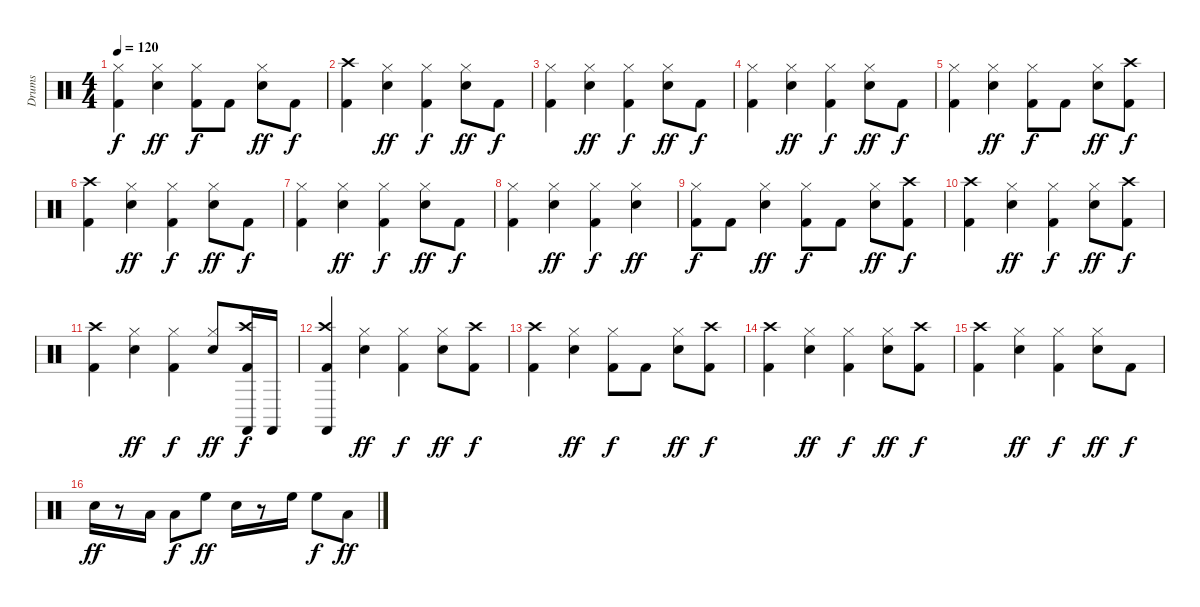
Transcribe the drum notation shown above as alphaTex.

\track ("Drums" "Drums") {instrument percussion}
\staff {score}
\articulation defaults
\ts (4 4)
\tempo 120
\clef neutral
\ks c
("Hi-Hat (closed)" "Kick (hit) 2").4{dy f} ("Snare (hit) 2" "Hi-Hat (closed)").4{dy ff} ("Hi-Hat (closed)" "Kick (hit) 2").8{dy f} "Kick (hit) 2".8 ("Snare (hit) 2" "Hi-Hat (closed)").8{dy ff} "Kick (hit) 2".8{dy f} |
("Crash high (hit)" "Kick (hit) 2").4 ("Snare (hit) 2" "Hi-Hat (closed)").4{dy ff} ("Hi-Hat (closed)" "Kick (hit) 2").4{dy f} ("Snare (hit) 2" "Hi-Hat (closed)").8{dy ff} "Kick (hit) 2".8{dy f} |
("Hi-Hat (closed)" "Kick (hit) 2").4 ("Snare (hit) 2" "Hi-Hat (closed)").4{dy ff} ("Hi-Hat (closed)" "Kick (hit) 2").4{dy f} ("Snare (hit) 2" "Hi-Hat (closed)").8{dy ff} "Kick (hit) 2".8{dy f} |
("Hi-Hat (closed)" "Kick (hit) 2").4 ("Snare (hit) 2" "Hi-Hat (closed)").4{dy ff} ("Hi-Hat (closed)" "Kick (hit) 2").4{dy f} ("Snare (hit) 2" "Hi-Hat (closed)").8{dy ff} "Kick (hit) 2".8{dy f} |
("Hi-Hat (closed)" "Kick (hit) 2").4 ("Snare (hit) 2" "Hi-Hat (closed)").4{dy ff} ("Hi-Hat (closed)" "Kick (hit) 2").8{dy f} "Kick (hit) 2".8 ("Hi-Hat (closed)" "Snare (hit) 2").8{dy ff} ("Crash high (hit)" "Kick (hit) 2").8{dy f} |
("Crash high (hit)" "Kick (hit) 2").4 ("Snare (hit) 2" "Hi-Hat (closed)").4{dy ff} ("Hi-Hat (closed)" "Kick (hit) 2").4{dy f} ("Snare (hit) 2" "Hi-Hat (closed)").8{dy ff} "Kick (hit) 2".8{dy f} |
("Hi-Hat (closed)" "Kick (hit) 2").4 ("Snare (hit) 2" "Hi-Hat (closed)").4{dy ff} ("Hi-Hat (closed)" "Kick (hit) 2").4{dy f} ("Snare (hit) 2" "Hi-Hat (closed)").8{dy ff} "Kick (hit) 2".8{dy f} |
("Hi-Hat (closed)" "Kick (hit) 2").4 ("Snare (hit) 2" "Hi-Hat (closed)").4{dy ff} ("Hi-Hat (closed)" "Kick (hit) 2").4{dy f} ("Snare (hit) 2" "Hi-Hat (closed)").4{dy ff} |
("Hi-Hat (closed)" "Kick (hit) 2").8{dy f} "Kick (hit) 2".8 ("Snare (hit) 2" "Hi-Hat (closed)").4{dy ff} ("Hi-Hat (closed)" "Kick (hit) 2").8{dy f} "Kick (hit) 2".8 ("Hi-Hat (closed)" "Snare (hit) 2").8{dy ff} ("Crash high (hit)" "Kick (hit) 2").8{dy f} |
("Crash high (hit)" "Kick (hit) 2").4 ("Snare (hit) 2" "Hi-Hat (closed)").4{dy ff} ("Hi-Hat (closed)" "Kick (hit) 2").4{dy f} ("Hi-Hat (closed)" "Snare (hit) 2").8{dy ff} ("Crash high (hit)" "Kick (hit) 2").8{dy f} |
("Crash high (hit)" "Kick (hit) 2").4 ("Snare (hit) 2" "Hi-Hat (closed)").4{dy ff} ("Hi-Hat (closed)" "Kick (hit) 2").4{dy f} ("Hi-Hat (closed)" "Snare (hit) 2").8{dy ff} ("Crash high (hit)" "Castanets (hit)" "Kick (hit) 2").16{dy f} "Castanets (hit)".16 |
("Crash high (hit)" "Castanets (hit)" "Kick (hit) 2").4 ("Snare (hit) 2" "Hi-Hat (closed)").4{dy ff} ("Hi-Hat (closed)" "Kick (hit) 2").4{dy f} ("Hi-Hat (closed)" "Snare (hit) 2").8{dy ff} ("Crash high (hit)" "Kick (hit) 2").8{dy f} |
("Crash high (hit)" "Kick (hit) 2").4 ("Snare (hit) 2" "Hi-Hat (closed)").4{dy ff} ("Hi-Hat (closed)" "Kick (hit) 2").8{dy f} "Kick (hit) 2".8 ("Hi-Hat (closed)" "Snare (hit) 2").8{dy ff} ("Crash high (hit)" "Kick (hit) 2").8{dy f} |
("Crash high (hit)" "Kick (hit) 2").4 ("Snare (hit) 2" "Hi-Hat (closed)").4{dy ff} ("Hi-Hat (closed)" "Kick (hit) 2").4{dy f} ("Hi-Hat (closed)" "Snare (hit) 2").8{dy ff} ("Crash high (hit)" "Kick (hit) 2").8{dy f} |
("Crash high (hit)" "Kick (hit) 2").4 ("Snare (hit) 2" "Hi-Hat (closed)").4{dy ff} ("Hi-Hat (closed)" "Kick (hit) 2").4{dy f} ("Hi-Hat (closed)" "Snare (hit) 2").8{dy ff} "Kick (hit) 2".8{dy f} |
"Snare (hit) 2".16{dy ff} r.8 "Low Floor Tom (hit)".16 "Low Floor Tom (hit)".8{dy f} "High Floor Tom (hit)".8{dy ff} "Snare (hit) 2".16 r.8 "High Floor Tom (hit)".16 "High Floor Tom (hit)".8{dy f} "Low Tom (hit)".8{dy ff}
